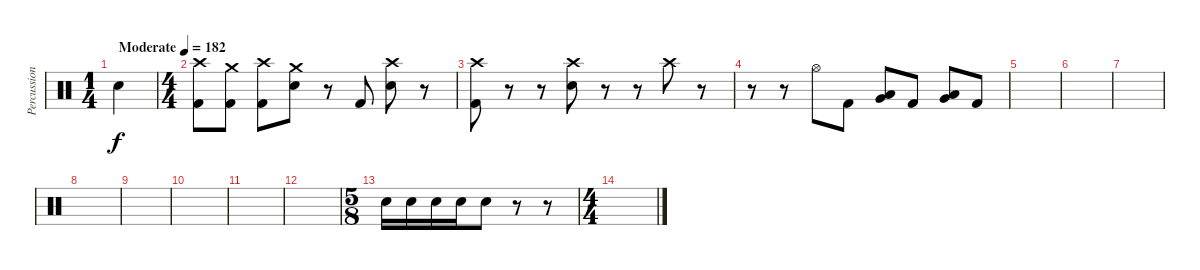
\track ("Percussion" "Percussion") {instrument percussion}
\staff {score}
\articulation defaults
\ts (1 4)
\tempo (182 "Moderate")
\clef neutral
\ks c "Snare (hit) 2".4{dy f}
|
\ts (4 4)
("Crash high (hit)" "Kick (hit) 2").8 ("Crash medium (hit)" "Kick (hit) 2").8 ("Crash high (hit)" "Kick (hit) 2").8 ("Crash medium (hit)" "Snare (hit) 2").8 r.8 "Kick (hit) 2".8 ("Crash high (hit)" "Snare (hit) 2").8 r.8 |
("Crash high (hit)" "Kick (hit) 2").8 r.8 r.8 ("Crash high (hit)" "Snare (hit) 2").8 r.8 r.8 "Crash high (hit)".8 r.8 |
r.8 r.8 "Hi-Hat (open)".8 "Kick (hit) 2".8 ("Low Tom (hit)" "Very Low Tom (hit)").8 "Kick (hit) 2".8 ("Very Low Tom (hit)" "Low Floor Tom (hit)").8 "Kick (hit) 2".8 |
|
|
|
|
|
|
|
|
\ts (5 8)
"Snare (hit) 2".16 "Snare (hit) 2".16 "Snare (hit) 2".16 "Snare (hit) 2".16 "Snare (hit) 2".8 r.8 r.8 |
\ts (4 4)
